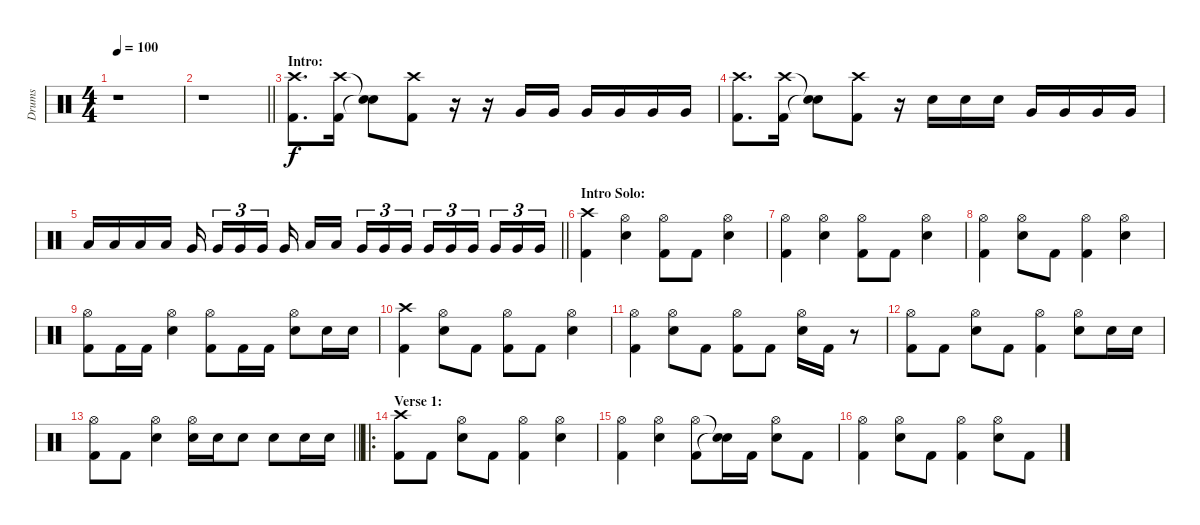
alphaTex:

\track ("Drums" "Drums") {instrument percussion}
\staff {score}
\articulation defaults
\ts (4 4)
\tempo 100
\clef neutral
\ks c
r.1{dy f} |
\barLineRight lightlight
r.1 |
\section ("" "Intro:")
("Crash high (hit)" "Kick (hit) 2").8{d} ("Crash high (hit)" "Kick (hit) 2").16 ("Snare (hit)"{t} "Snare (hit)"{t}).8 ("Crash high (hit)" "Kick (hit) 2").8 r.16 r.16 "Very Low Tom (hit)".16 "Very Low Tom (hit)".16 "Very Low Tom (hit)".16 "Very Low Tom (hit)".16 "Very Low Tom (hit)".16 "Very Low Tom (hit)".16 |
("Crash high (hit)" "Kick (hit) 2").8{d} ("Crash high (hit)" "Kick (hit) 2").16 ("Snare (hit)"{t} "Snare (hit)"{t}).8 ("Crash high (hit)" "Kick (hit) 2").8 r.16 "Electric Snare (hit)".16 "Electric Snare (hit)".16 "Electric Snare (hit)".16 "Very Low Tom (hit)".16 "Very Low Tom (hit)".16 "Very Low Tom (hit)".16 "Very Low Tom (hit)".16 |
\barLineRight lightlight "Low Tom (hit)".16 "Low Tom (hit)".16 "Low Tom (hit)".16 "Low Tom (hit)".16 "Very Low Tom (hit)".16{beam splitsecondary} "Very Low Tom (hit)".16{tu (3 2)} "Very Low Tom (hit)".16{tu (3 2)} "Very Low Tom (hit)".16{tu (3 2) beam splitsecondary} "Very Low Tom (hit)".16 "Low Floor Tom (hit)".16 "Low Floor Tom (hit)".16{beam splitsecondary} "Very Low Tom (hit)".16{tu (3 2)} "Very Low Tom (hit)".16{tu (3 2)} "Very Low Tom (hit)".16{tu (3 2)} "Very Low Tom (hit)".16{tu (3 2)} "Very Low Tom (hit)".16{tu (3 2)} "Very Low Tom (hit)".16{tu (3 2) beam splitsecondary} "Very Low Tom (hit)".16{tu (3 2)} "Very Low Tom (hit)".16{tu (3 2)} "Very Low Tom (hit)".16{tu (3 2)}
|
\section ("" "Intro Solo:")
("Crash high (hit)" "Kick (hit) 2").4 ("Hi-Hat (open)" "Electric Snare (hit)").4 ("Hi-Hat (open)" "Kick (hit) 2").8 "Kick (hit) 2".8 ("Hi-Hat (open)" "Electric Snare (hit)").4 |
("Hi-Hat (open)" "Kick (hit) 2").4 ("Hi-Hat (open)" "Electric Snare (hit)").4 ("Hi-Hat (open)" "Kick (hit) 2").8 "Kick (hit) 2".8 ("Hi-Hat (open)" "Electric Snare (hit)").4 |
("Hi-Hat (open)" "Kick (hit) 2").4 ("Hi-Hat (open)" "Electric Snare (hit)").8 "Kick (hit) 2".8 ("Hi-Hat (open)" "Kick (hit) 2").4 ("Hi-Hat (open)" "Electric Snare (hit)").4 |
("Hi-Hat (open)" "Kick (hit) 2").8 "Kick (hit) 2".16 "Kick (hit) 2".16 ("Hi-Hat (open)" "Electric Snare (hit)").4 ("Hi-Hat (open)" "Kick (hit) 2").8 "Kick (hit) 2".16 "Kick (hit) 2".16 ("Hi-Hat (open)" "Electric Snare (hit)").8 "Electric Snare (hit)".16 "Electric Snare (hit)".16 |
("Crash high (hit)" "Kick (hit) 2").4 ("Hi-Hat (open)" "Electric Snare (hit)").8 "Kick (hit) 2".8 ("Hi-Hat (open)" "Kick (hit) 2").8 "Kick (hit) 2".8 ("Hi-Hat (open)" "Electric Snare (hit)").4 |
("Hi-Hat (open)" "Kick (hit) 2").4 ("Hi-Hat (open)" "Electric Snare (hit)").8 "Kick (hit) 2".8 ("Hi-Hat (open)" "Kick (hit) 2").8 "Kick (hit) 2".8 ("Hi-Hat (open)" "Electric Snare (hit)").16 "Kick (hit) 2".16 r.8 |
("Hi-Hat (open)" "Kick (hit) 2").8 "Kick (hit) 2".8 ("Hi-Hat (open)" "Electric Snare (hit)").8 "Kick (hit) 2".8 ("Hi-Hat (open)" "Kick (hit) 2").4 ("Hi-Hat (open)" "Electric Snare (hit)").8 "Electric Snare (hit)".16 "Electric Snare (hit)".16 |
\barLineRight lightlight
("Hi-Hat (open)" "Kick (hit) 2").8 "Kick (hit) 2".8 ("Hi-Hat (open)" "Electric Snare (hit)").4 ("Hi-Hat (open)" "Electric Snare (hit)").16 "Electric Snare (hit)".16 "Electric Snare (hit)".8 "Electric Snare (hit)".8 "Electric Snare (hit)".16 "Electric Snare (hit)".16 |
\ro
\section ("" "Verse 1:")
("Crash high (hit)" "Kick (hit) 2").8 "Kick (hit) 2".8 ("Hi-Hat (open)" "Electric Snare (hit)").8 "Kick (hit) 2".8 ("Hi-Hat (open)" "Kick (hit) 2").4 ("Hi-Hat (open)" "Electric Snare (hit)").4 |
("Hi-Hat (open)" "Kick (hit) 2").4 ("Hi-Hat (open)" "Electric Snare (hit)").4 ("Hi-Hat (open)" "Kick (hit) 2").8 ("Snare (hit)"{t} "Snare (hit)"{t}).16 "Kick (hit) 2".16 ("Hi-Hat (open)" "Electric Snare (hit)").8 "Kick (hit) 2".8 |
("Hi-Hat (open)" "Kick (hit) 2").4 ("Hi-Hat (open)" "Electric Snare (hit)").8 "Kick (hit) 2".8 ("Hi-Hat (open)" "Kick (hit) 2").4 ("Hi-Hat (open)" "Electric Snare (hit)").8 "Kick (hit) 2".8
